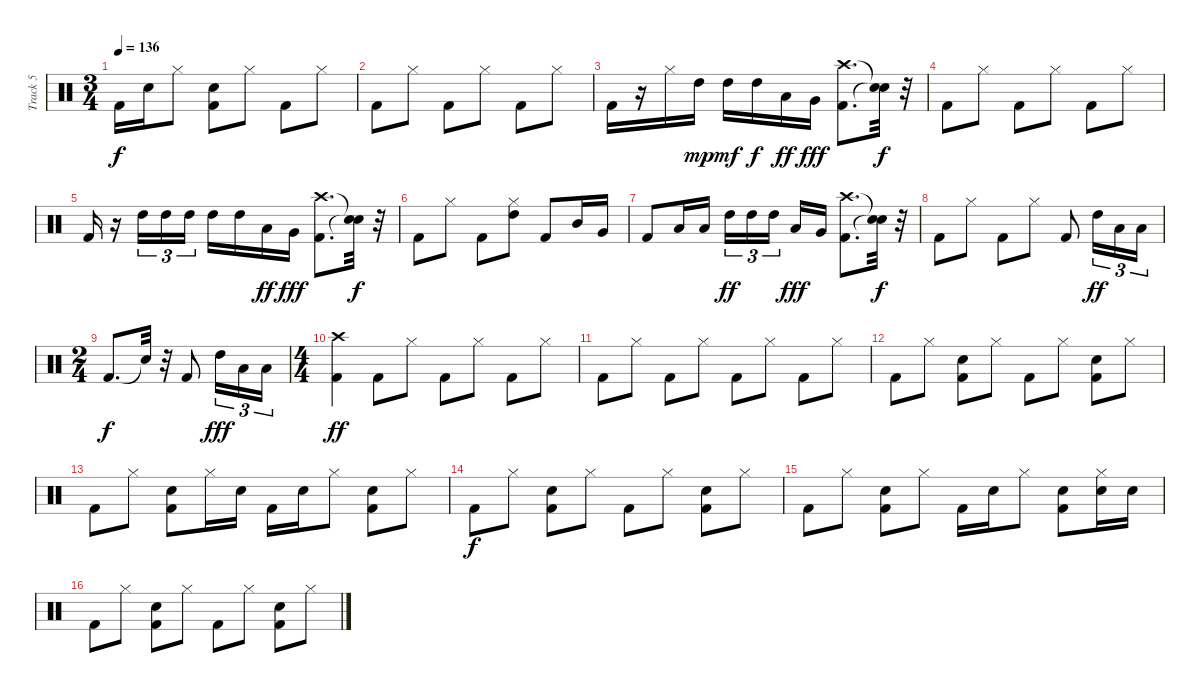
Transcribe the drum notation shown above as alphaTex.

\track ("Track 5" "Track 5") {instrument percussion}
\staff {score}
\articulation defaults
\ts (3 4)
\tempo 136
\clef neutral
\ks c "Kick (hit) 2".16{dy f} "Hand Clap (hit)".16 "Hi-Hat (closed)".8
("Kick (hit) 2" "Hand Clap (hit)").8 "Hi-Hat (closed)".8 "Kick (hit) 2".8 "Hi-Hat (closed)".8 |
"Kick (hit) 2".8 "Hi-Hat (closed)".8 "Kick (hit) 2".8 "Hi-Hat (closed)".8 "Kick (hit) 2".8 "Hi-Hat (closed)".8 |
"Kick (hit) 2".16 r.16 "Hi-Hat (closed)".16 "High Tom (hit)".16{dy mp} "High Tom (hit)".16{dy mf} "High Tom (hit)".16{dy f} "Low Tom (hit)".16{dy ff} "Very Low Tom (hit)".16{dy fff} ("Kick (hit) 2" "Crash high (hit)").8{d} ("Snare (hit)"{t} "Snare (hit)"{t}).32{dy f} r.32 |
"Kick (hit) 2".8 "Hi-Hat (closed)".8 "Kick (hit) 2".8 "Hi-Hat (closed)".8 "Kick (hit) 2".8 "Hi-Hat (closed)".8 |
"Kick (hit) 2".16 r.16 "High Tom (hit)".16{tu (3 2)} "High Tom (hit)".16{tu (3 2)} "High Tom (hit)".16{tu (3 2)} "High Tom (hit)".16 "High Tom (hit)".16 "Low Tom (hit)".16{dy ff} "Very Low Tom (hit)".16{dy fff} ("Kick (hit) 2" "Crash high (hit)").8{d} ("Snare (hit)"{t} "Snare (hit)"{t}).32{dy f} r.32 |
"Kick (hit) 2".8 "Hi-Hat (closed)".8 "Kick (hit) 2".8 ("Hi-Hat (closed)" "High Tom (hit)").8 "Kick (hit) 2".8 "Mid Tom (hit)".16 "Very Low Tom (hit)".16 |
"Kick (hit) 2".8 "Low Tom (hit)".16 "Low Floor Tom (hit)".16 "High Tom (hit)".16{tu (3 2) dy ff} "High Tom (hit)".16{tu (3 2)} "High Tom (hit)".16{tu (3 2) beam splitsecondary} "Low Tom (hit)".16{dy fff} "Very Low Tom (hit)".16 ("Kick (hit) 2" "Crash high (hit)").8{d} ("Snare (hit)"{t} "Snare (hit)"{t}).32{dy f} r.32 |
"Kick (hit) 2".8 "Hi-Hat (closed)".8 "Kick (hit) 2".8 "Hi-Hat (closed)".8 "Kick (hit) 2".8 "High Tom (hit)".16{tu (3 2) dy ff} "Low Tom (hit)".16{tu (3 2)} "Low Floor Tom (hit)".16{tu (3 2)} |
\ts (2 4)
"Kick (hit) 2".8{d dy f} "Snare (hit)"{t}.32 r.32 "Kick (hit) 2".8 "High Tom (hit)".16{tu (3 2) dy fff} "Low Tom (hit)".16{tu (3 2)} "Low Floor Tom (hit)".16{tu (3 2)} |
\ts (4 4)
("Kick (hit) 2" "Crash high (hit)").4{dy ff} "Kick (hit) 2".8 "Hi-Hat (closed)".8 "Kick (hit) 2".8 "Hi-Hat (closed)".8 "Kick (hit) 2".8 "Hi-Hat (closed)".8 |
"Kick (hit) 2".8 "Hi-Hat (closed)".8 "Kick (hit) 2".8 "Hi-Hat (closed)".8 "Kick (hit) 2".8 "Hi-Hat (closed)".8 "Kick (hit) 2".8 "Hi-Hat (closed)".8 |
"Kick (hit) 2".8 "Hi-Hat (closed)".8 ("Kick (hit) 2" "Hand Clap (hit)").8 "Hi-Hat (closed)".8 "Kick (hit) 2".8 "Hi-Hat (closed)".8 ("Kick (hit) 2" "Hand Clap (hit)").8 "Hi-Hat (closed)".8 |
"Kick (hit) 2".8 "Hi-Hat (closed)".8 ("Kick (hit) 2" "Hand Clap (hit)").8 "Hi-Hat (closed)".16 "Hand Clap (hit)".16 "Kick (hit) 2".16 "Hand Clap (hit)".16 "Hi-Hat (closed)".8 ("Kick (hit) 2" "Hand Clap (hit)").8 "Hi-Hat (closed)".8 |
"Kick (hit) 2".8{dy f} "Hi-Hat (closed)".8 ("Kick (hit) 2" "Hand Clap (hit)").8 "Hi-Hat (closed)".8 "Kick (hit) 2".8 "Hi-Hat (closed)".8 ("Kick (hit) 2" "Hand Clap (hit)").8 "Hi-Hat (closed)".8 |
"Kick (hit) 2".8 "Hi-Hat (closed)".8 ("Kick (hit) 2" "Hand Clap (hit)").8 "Hi-Hat (closed)".8 "Kick (hit) 2".16 "Hand Clap (hit)".16 "Hi-Hat (closed)".8 ("Kick (hit) 2" "Hand Clap (hit)").8 ("Hand Clap (hit)" "Hi-Hat (closed)").16 "Hand Clap (hit)".16 |
"Kick (hit) 2".8 "Hi-Hat (closed)".8 ("Kick (hit) 2" "Hand Clap (hit)").8 "Hi-Hat (closed)".8 "Kick (hit) 2".8 "Hi-Hat (closed)".8 ("Kick (hit) 2" "Hand Clap (hit)").8 "Hi-Hat (closed)".8
